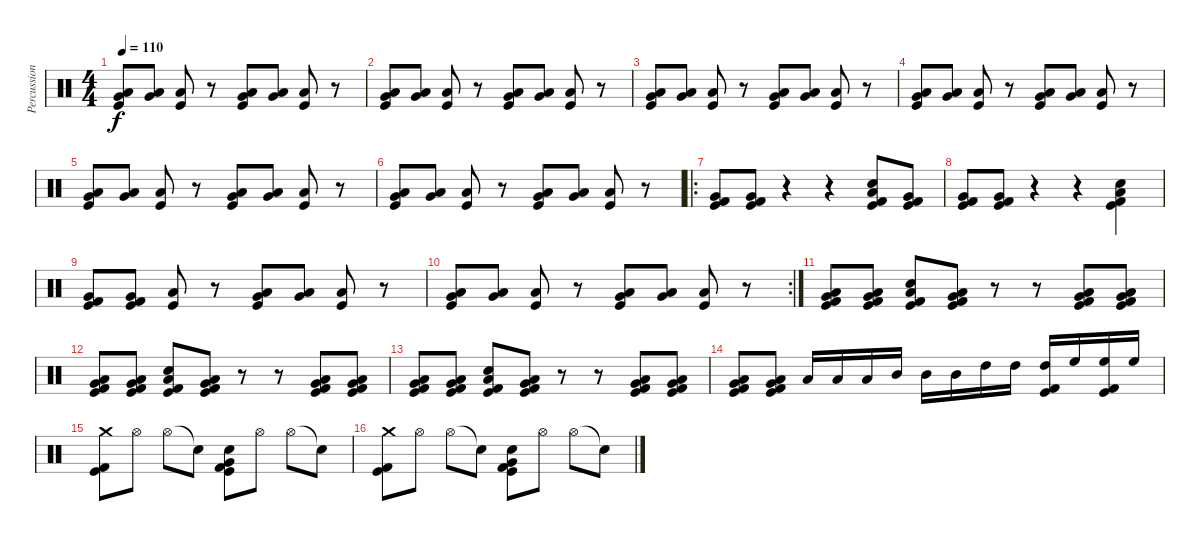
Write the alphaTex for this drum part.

\track ("Percussion" "Percussion") {instrument percussion}
\staff {score}
\articulation defaults
\ts (4 4)
\tempo 110
\clef neutral
\ks c
("Low Tom (hit)" "Very Low Tom (hit)" "Kick (hit)").8{dy f} ("Low Tom (hit)" "Very Low Tom (hit)").8 ("Low Floor Tom (hit)" "Kick (hit)").8 r.8 ("Low Tom (hit)" "Very Low Tom (hit)" "Kick (hit)").8 ("Low Tom (hit)" "Very Low Tom (hit)").8 ("Low Floor Tom (hit)" "Kick (hit)").8 r.8 |
("Low Tom (hit)" "Very Low Tom (hit)" "Kick (hit)").8 ("Low Tom (hit)" "Very Low Tom (hit)").8 ("Low Floor Tom (hit)" "Kick (hit)").8 r.8 ("Low Tom (hit)" "Very Low Tom (hit)" "Kick (hit)").8 ("Low Tom (hit)" "Very Low Tom (hit)").8 ("Low Floor Tom (hit)" "Kick (hit)").8 r.8 |
("Low Tom (hit)" "Very Low Tom (hit)" "Kick (hit)").8 ("Low Tom (hit)" "Very Low Tom (hit)").8 ("Low Floor Tom (hit)" "Kick (hit)").8 r.8 ("Low Tom (hit)" "Very Low Tom (hit)" "Kick (hit)").8 ("Low Tom (hit)" "Very Low Tom (hit)").8 ("Low Floor Tom (hit)" "Kick (hit)").8 r.8 |
("Low Tom (hit)" "Very Low Tom (hit)" "Kick (hit)").8 ("Low Tom (hit)" "Very Low Tom (hit)").8 ("Low Floor Tom (hit)" "Kick (hit)").8 r.8 ("Low Tom (hit)" "Very Low Tom (hit)" "Kick (hit)").8 ("Low Tom (hit)" "Very Low Tom (hit)").8 ("Low Floor Tom (hit)" "Kick (hit)").8 r.8 |
("Low Tom (hit)" "Very Low Tom (hit)" "Kick (hit)").8 ("Low Tom (hit)" "Very Low Tom (hit)").8 ("Low Floor Tom (hit)" "Kick (hit)").8 r.8 ("Low Tom (hit)" "Very Low Tom (hit)" "Kick (hit)").8 ("Low Tom (hit)" "Very Low Tom (hit)").8 ("Low Floor Tom (hit)" "Kick (hit)").8 r.8 |
("Low Tom (hit)" "Very Low Tom (hit)" "Kick (hit)").8 ("Low Tom (hit)" "Very Low Tom (hit)").8 ("Low Floor Tom (hit)" "Kick (hit)").8 r.8 ("Low Tom (hit)" "Very Low Tom (hit)" "Kick (hit)").8 ("Low Tom (hit)" "Very Low Tom (hit)").8 ("Low Floor Tom (hit)" "Kick (hit)").8 r.8 |
\ro
("Very Low Tom (hit)" "Kick (hit) 2" "Kick (hit)").8 ("Very Low Tom (hit)" "Kick (hit) 2" "Kick (hit)").8 r.4 r.4 ("Electric Snare (hit)" "Low Tom (hit)" "Kick (hit) 2" "Kick (hit)").8 ("Very Low Tom (hit)" "Kick (hit) 2" "Kick (hit)").8 |
("Very Low Tom (hit)" "Kick (hit) 2" "Kick (hit)").8 ("Very Low Tom (hit)" "Kick (hit) 2" "Kick (hit)").8 r.4 r.4 ("Electric Snare (hit)" "Low Tom (hit)" "Kick (hit) 2" "Kick (hit)").4 |
("Very Low Tom (hit)" "Kick (hit) 2" "Kick (hit)").8 ("Very Low Tom (hit)" "Kick (hit) 2" "Kick (hit)").8 ("Low Floor Tom (hit)" "Kick (hit)").8 r.8 ("Low Tom (hit)" "Very Low Tom (hit)" "Kick (hit)").8 ("Low Tom (hit)" "Very Low Tom (hit)").8 ("Low Floor Tom (hit)" "Kick (hit)").8 r.8 |
\rc 2
("Low Tom (hit)" "Very Low Tom (hit)" "Kick (hit)").8 ("Low Tom (hit)" "Very Low Tom (hit)").8 ("Low Floor Tom (hit)" "Kick (hit)").8 r.8 ("Low Tom (hit)" "Very Low Tom (hit)" "Kick (hit)").8 ("Low Tom (hit)" "Very Low Tom (hit)").8 ("Low Floor Tom (hit)" "Kick (hit)").8 r.8 |
("Low Tom (hit)" "Very Low Tom (hit)" "Kick (hit) 2" "Kick (hit)").8 ("Low Tom (hit)" "Very Low Tom (hit)" "Kick (hit) 2" "Kick (hit)").8 ("Snare (hit) 2" "Low Tom (hit)" "Kick (hit) 2" "Kick (hit)").8 ("Low Tom (hit)" "Very Low Tom (hit)" "Kick (hit) 2" "Kick (hit)").8 r.8 r.8 ("Low Tom (hit)" "Very Low Tom (hit)" "Kick (hit) 2" "Kick (hit)").8 ("Low Tom (hit)" "Very Low Tom (hit)" "Kick (hit) 2" "Kick (hit)").8 |
("Low Tom (hit)" "Very Low Tom (hit)" "Kick (hit) 2" "Kick (hit)").8 ("Low Tom (hit)" "Very Low Tom (hit)" "Kick (hit) 2" "Kick (hit)").8 ("Snare (hit) 2" "Low Tom (hit)" "Kick (hit) 2" "Kick (hit)").8 ("Low Tom (hit)" "Very Low Tom (hit)" "Kick (hit) 2" "Kick (hit)").8 r.8 r.8 ("Low Tom (hit)" "Very Low Tom (hit)" "Kick (hit) 2" "Kick (hit)").8 ("Low Tom (hit)" "Very Low Tom (hit)" "Kick (hit) 2" "Kick (hit)").8 |
("Low Tom (hit)" "Very Low Tom (hit)" "Kick (hit) 2" "Kick (hit)").8 ("Low Tom (hit)" "Very Low Tom (hit)" "Kick (hit) 2" "Kick (hit)").8 ("Snare (hit) 2" "Low Tom (hit)" "Kick (hit) 2" "Kick (hit)").8 ("Low Tom (hit)" "Very Low Tom (hit)" "Kick (hit) 2" "Kick (hit)").8 r.8 r.8 ("Low Tom (hit)" "Very Low Tom (hit)" "Kick (hit) 2" "Kick (hit)").8 ("Low Tom (hit)" "Very Low Tom (hit)" "Kick (hit) 2" "Kick (hit)").8 |
("Low Tom (hit)" "Very Low Tom (hit)" "Kick (hit) 2" "Kick (hit)").8 ("Low Tom (hit)" "Very Low Tom (hit)" "Kick (hit) 2" "Kick (hit)").8 "Low Tom (hit)".16 "Low Tom (hit)".16 "Low Tom (hit)".16 "Mid Tom (hit)".16 "Mid Tom (hit)".16 "Mid Tom (hit)".16 "High Tom (hit)".16 "High Tom (hit)".16 ("High Tom (hit)" "Kick (hit) 2" "Kick (hit)").16 "High Floor Tom (hit)".16 ("High Floor Tom (hit)" "Kick (hit) 2" "Kick (hit)").16 "High Floor Tom (hit)".16 |
("Crash medium (hit)" "Kick (hit) 2" "Kick (hit)").8 "Hi-Hat (open)".8 "Hi-Hat (open)".8 "Snare (hit)"{t}.8 ("Very Low Tom (hit)" "Snare (hit) 2" "Kick (hit) 2" "Kick (hit)").8 "Hi-Hat (open)".8 "Hi-Hat (open)".8 "Snare (hit)"{t}.8 |
("Crash medium (hit)" "Kick (hit) 2" "Kick (hit)").8 "Hi-Hat (open)".8 "Hi-Hat (open)".8 "Snare (hit)"{t}.8 ("Very Low Tom (hit)" "Snare (hit) 2" "Kick (hit) 2" "Kick (hit)").8 "Hi-Hat (open)".8 "Hi-Hat (open)".8 "Snare (hit)"{t}.8
